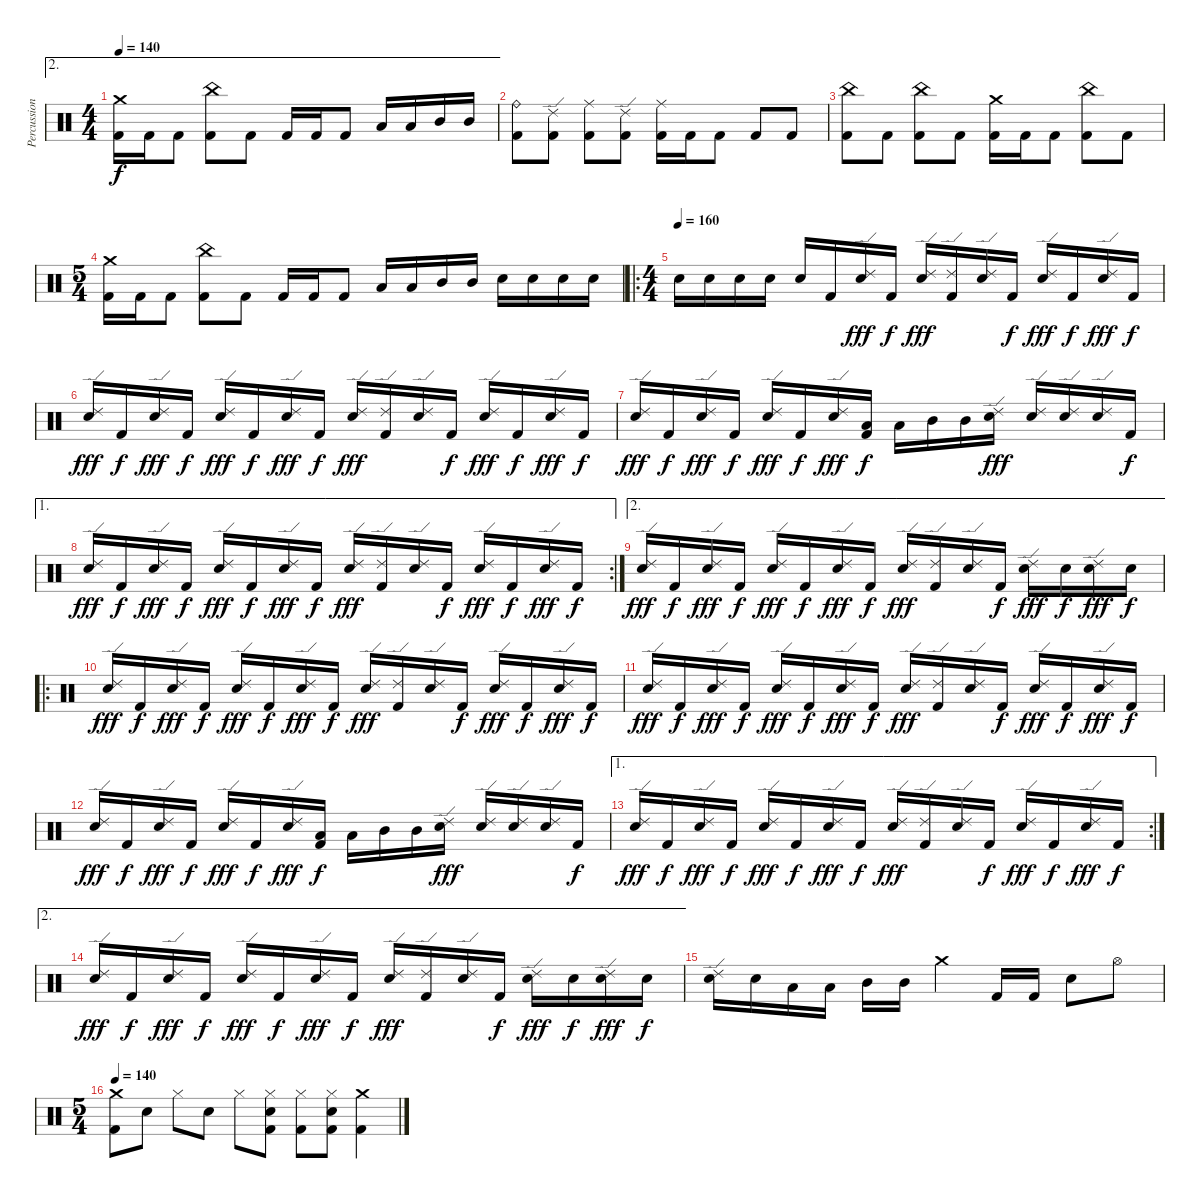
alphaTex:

\track ("Percussion" "Percussion") {instrument percussion}
\staff {score}
\articulation defaults
\ae 2
\ts (4 4)
\tempo 140
\clef neutral
\ks c
("Crash medium (hit)" "Kick (hit) 2").16{dy f} "Kick (hit) 2".16 "Kick (hit) 2".8 ("China (hit)" "Kick (hit) 2").8 "Kick (hit) 2".8 "Kick (hit) 2".16 "Kick (hit) 2".16 "Kick (hit) 2".8 "Low Tom (hit)".16 "Low Tom (hit)".16 "Mid Tom (hit)".16 "Mid Tom (hit)".16 |
("Ride (bell)" "Kick (hit) 2").8 ("Ride (edge) 2" "Kick (hit) 2").8 ("Ride (middle)" "Kick (hit) 2").8 ("Ride (edge) 2" "Kick (hit) 2").8 ("Ride (middle)" "Kick (hit) 2").16 "Kick (hit) 2".16 "Kick (hit) 2".8 "Kick (hit) 2".8 "Kick (hit) 2".8 |
("China (hit)" "Kick (hit) 2").8 "Kick (hit) 2".8 ("China (hit)" "Kick (hit) 2").8 "Kick (hit) 2".8 ("Crash medium (hit)" "Kick (hit) 2").16 "Kick (hit) 2".16 "Kick (hit) 2".8 ("China (hit)" "Kick (hit) 2").8 "Kick (hit) 2".8 |
\ts (5 4)
("Crash medium (hit)" "Kick (hit) 2").16 "Kick (hit) 2".16 "Kick (hit) 2".8 ("China (hit)" "Kick (hit) 2").8 "Kick (hit) 2".8 "Kick (hit) 2".16 "Kick (hit) 2".16 "Kick (hit) 2".8 "Low Tom (hit)".16 "Low Tom (hit)".16 "Mid Tom (hit)".16 "Mid Tom (hit)".16 "Electric Snare (hit)".16 "Electric Snare (hit)".16 "Electric Snare (hit)".16 "Electric Snare (hit)".16 |
\ro
\ts (4 4)
\tempo (160)
"Electric Snare (hit)".16 "Electric Snare (hit)".16 "Electric Snare (hit)".16 "Electric Snare (hit)".16 "Electric Snare (hit)".16 "Kick (hit) 2".16 ("Ride (edge) 2" "Electric Snare (hit)").16{dy fff} "Kick (hit) 2".16{dy f} ("Ride (edge) 2" "Electric Snare (hit)").16{dy fff} ("Ride (edge) 2" "Kick (hit) 2").16 ("Ride (edge) 2" "Electric Snare (hit)").16 "Kick (hit) 2".16{dy f} ("Ride (edge) 2" "Electric Snare (hit)").16{dy fff} "Kick (hit) 2".16{dy f} ("Ride (edge) 2" "Electric Snare (hit)").16{dy fff} "Kick (hit) 2".16{dy f} |
("Ride (edge) 2" "Electric Snare (hit)").16{dy fff} "Kick (hit) 2".16{dy f} ("Ride (edge) 2" "Electric Snare (hit)").16{dy fff} "Kick (hit) 2".16{dy f} ("Ride (edge) 2" "Electric Snare (hit)").16{dy fff} "Kick (hit) 2".16{dy f} ("Ride (edge) 2" "Electric Snare (hit)").16{dy fff} "Kick (hit) 2".16{dy f} ("Ride (edge) 2" "Electric Snare (hit)").16{dy fff} ("Ride (edge) 2" "Kick (hit) 2").16 ("Ride (edge) 2" "Electric Snare (hit)").16 "Kick (hit) 2".16{dy f} ("Ride (edge) 2" "Electric Snare (hit)").16{dy fff} "Kick (hit) 2".16{dy f} ("Ride (edge) 2" "Electric Snare (hit)").16{dy fff} "Kick (hit) 2".16{dy f} |
("Ride (edge) 2" "Electric Snare (hit)").16{dy fff} "Kick (hit) 2".16{dy f} ("Ride (edge) 2" "Electric Snare (hit)").16{dy fff} "Kick (hit) 2".16{dy f} ("Ride (edge) 2" "Electric Snare (hit)").16{dy fff} "Kick (hit) 2".16{dy f} ("Ride (edge) 2" "Electric Snare (hit)").16{dy fff} ("Low Tom (hit)" "Kick (hit) 2").16{dy f} "Low Tom (hit)".16 "Mid Tom (hit)".16 "Mid Tom (hit)".16 ("Ride (edge) 2" "Electric Snare (hit)").16{dy fff} ("Ride (edge) 2" "Electric Snare (hit)").16 ("Ride (edge) 2" "Electric Snare (hit)").16 ("Ride (edge) 2" "Electric Snare (hit)").16 "Kick (hit) 2".16{dy f} |
\ae 1
\rc 2
("Ride (edge) 2" "Electric Snare (hit)").16{dy fff} "Kick (hit) 2".16{dy f} ("Ride (edge) 2" "Electric Snare (hit)").16{dy fff} "Kick (hit) 2".16{dy f} ("Ride (edge) 2" "Electric Snare (hit)").16{dy fff} "Kick (hit) 2".16{dy f} ("Ride (edge) 2" "Electric Snare (hit)").16{dy fff} "Kick (hit) 2".16{dy f} ("Ride (edge) 2" "Electric Snare (hit)").16{dy fff} ("Ride (edge) 2" "Kick (hit) 2").16 ("Ride (edge) 2" "Electric Snare (hit)").16 "Kick (hit) 2".16{dy f} ("Ride (edge) 2" "Electric Snare (hit)").16{dy fff} "Kick (hit) 2".16{dy f} ("Ride (edge) 2" "Electric Snare (hit)").16{dy fff} "Kick (hit) 2".16{dy f} |
\ae 2
("Ride (edge) 2" "Electric Snare (hit)").16{dy fff} "Kick (hit) 2".16{dy f} ("Ride (edge) 2" "Electric Snare (hit)").16{dy fff} "Kick (hit) 2".16{dy f} ("Ride (edge) 2" "Electric Snare (hit)").16{dy fff} "Kick (hit) 2".16{dy f} ("Ride (edge) 2" "Electric Snare (hit)").16{dy fff} "Kick (hit) 2".16{dy f} ("Ride (edge) 2" "Electric Snare (hit)").16{dy fff} ("Ride (edge) 2" "Kick (hit) 2").16 ("Ride (edge) 2" "Electric Snare (hit)").16 "Kick (hit) 2".16{dy f} ("Ride (edge) 2" "Electric Snare (hit)").16{dy fff} "Electric Snare (hit)".16{dy f} ("Ride (edge) 2" "Electric Snare (hit)").16{dy fff} "Electric Snare (hit)".16{dy f} |
\ro
("Ride (edge) 2" "Electric Snare (hit)").16{dy fff} "Kick (hit) 2".16{dy f} ("Ride (edge) 2" "Electric Snare (hit)").16{dy fff} "Kick (hit) 2".16{dy f} ("Ride (edge) 2" "Electric Snare (hit)").16{dy fff} "Kick (hit) 2".16{dy f} ("Ride (edge) 2" "Electric Snare (hit)").16{dy fff} "Kick (hit) 2".16{dy f} ("Ride (edge) 2" "Electric Snare (hit)").16{dy fff} ("Ride (edge) 2" "Kick (hit) 2").16 ("Ride (edge) 2" "Electric Snare (hit)").16 "Kick (hit) 2".16{dy f} ("Ride (edge) 2" "Electric Snare (hit)").16{dy fff} "Kick (hit) 2".16{dy f} ("Ride (edge) 2" "Electric Snare (hit)").16{dy fff} "Kick (hit) 2".16{dy f} |
("Ride (edge) 2" "Electric Snare (hit)").16{dy fff} "Kick (hit) 2".16{dy f} ("Ride (edge) 2" "Electric Snare (hit)").16{dy fff} "Kick (hit) 2".16{dy f} ("Ride (edge) 2" "Electric Snare (hit)").16{dy fff} "Kick (hit) 2".16{dy f} ("Ride (edge) 2" "Electric Snare (hit)").16{dy fff} "Kick (hit) 2".16{dy f} ("Ride (edge) 2" "Electric Snare (hit)").16{dy fff} ("Ride (edge) 2" "Kick (hit) 2").16 ("Ride (edge) 2" "Electric Snare (hit)").16 "Kick (hit) 2".16{dy f} ("Ride (edge) 2" "Electric Snare (hit)").16{dy fff} "Kick (hit) 2".16{dy f} ("Ride (edge) 2" "Electric Snare (hit)").16{dy fff} "Kick (hit) 2".16{dy f} |
("Ride (edge) 2" "Electric Snare (hit)").16{dy fff} "Kick (hit) 2".16{dy f} ("Ride (edge) 2" "Electric Snare (hit)").16{dy fff} "Kick (hit) 2".16{dy f} ("Ride (edge) 2" "Electric Snare (hit)").16{dy fff} "Kick (hit) 2".16{dy f} ("Ride (edge) 2" "Electric Snare (hit)").16{dy fff} ("Low Tom (hit)" "Kick (hit) 2").16{dy f} "Low Tom (hit)".16 "Mid Tom (hit)".16 "Mid Tom (hit)".16 ("Ride (edge) 2" "Electric Snare (hit)").16{dy fff} ("Ride (edge) 2" "Electric Snare (hit)").16 ("Ride (edge) 2" "Electric Snare (hit)").16 ("Ride (edge) 2" "Electric Snare (hit)").16 "Kick (hit) 2".16{dy f} |
\ae 1
\rc 2
("Ride (edge) 2" "Electric Snare (hit)").16{dy fff} "Kick (hit) 2".16{dy f} ("Ride (edge) 2" "Electric Snare (hit)").16{dy fff} "Kick (hit) 2".16{dy f} ("Ride (edge) 2" "Electric Snare (hit)").16{dy fff} "Kick (hit) 2".16{dy f} ("Ride (edge) 2" "Electric Snare (hit)").16{dy fff} "Kick (hit) 2".16{dy f} ("Ride (edge) 2" "Electric Snare (hit)").16{dy fff} ("Ride (edge) 2" "Kick (hit) 2").16 ("Ride (edge) 2" "Electric Snare (hit)").16 "Kick (hit) 2".16{dy f} ("Ride (edge) 2" "Electric Snare (hit)").16{dy fff} "Kick (hit) 2".16{dy f} ("Ride (edge) 2" "Electric Snare (hit)").16{dy fff} "Kick (hit) 2".16{dy f} |
\ae 2
("Ride (edge) 2" "Electric Snare (hit)").16{dy fff} "Kick (hit) 2".16{dy f} ("Ride (edge) 2" "Electric Snare (hit)").16{dy fff} "Kick (hit) 2".16{dy f} ("Ride (edge) 2" "Electric Snare (hit)").16{dy fff} "Kick (hit) 2".16{dy f} ("Ride (edge) 2" "Electric Snare (hit)").16{dy fff} "Kick (hit) 2".16{dy f} ("Ride (edge) 2" "Electric Snare (hit)").16{dy fff} ("Ride (edge) 2" "Kick (hit) 2").16 ("Ride (edge) 2" "Electric Snare (hit)").16 "Kick (hit) 2".16{dy f} ("Ride (edge) 2" "Electric Snare (hit)").16{dy fff} "Electric Snare (hit)".16{dy f} ("Ride (edge) 2" "Electric Snare (hit)").16{dy fff} "Electric Snare (hit)".16{dy f} |
("Ride (edge) 2" "Electric Snare (hit)").16 "Electric Snare (hit)".16 "Low Tom (hit)".16 "Low Tom (hit)".16 "Mid Tom (hit)".16 "Mid Tom (hit)".16 "Crash medium (hit)".4 "Kick (hit) 2".16 "Kick (hit) 2".16 "Electric Snare (hit)".8 "Hi-Hat (open)".8 |
\ts (5 4)
\tempo 140
("Crash medium (hit)" "Kick (hit) 2").8 "Electric Snare (hit)".8 "Hi-Hat (closed)".8 "Electric Snare (hit)".8 "Hi-Hat (closed)".8 ("Hi-Hat (closed)" "Electric Snare (hit)" "Kick (hit) 2").8 ("Hi-Hat (closed)" "Kick (hit) 2").8 ("Hi-Hat (closed)" "Electric Snare (hit)" "Kick (hit) 2").8 ("Crash medium (hit)" "Kick (hit) 2").4
